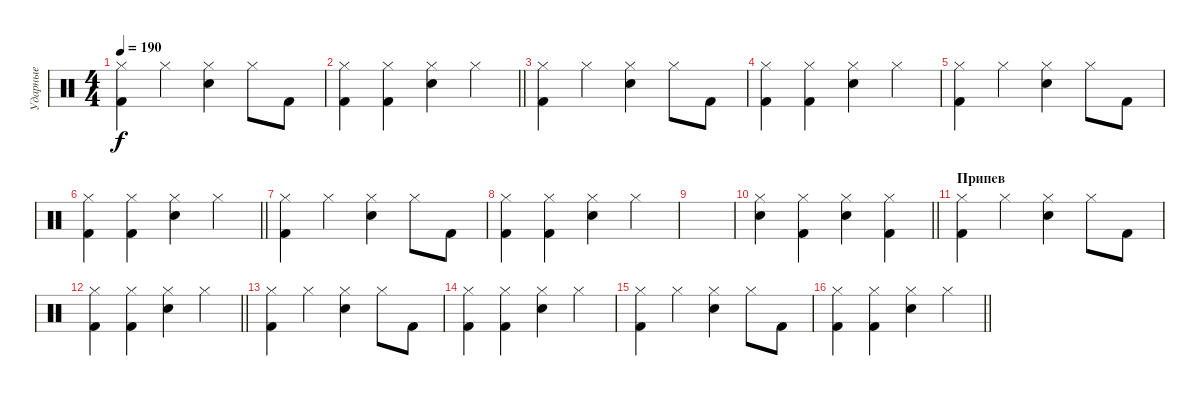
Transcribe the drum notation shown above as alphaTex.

\track ("Ударные" "Ударные") {instrument percussion}
\staff {score}
\articulation defaults
\ts (4 4)
\tempo 190
\clef neutral
\ks c
("Kick (hit) 2" "Hi-Hat (closed)").4{dy f} "Hi-Hat (closed)".4 ("Hand Clap (hit)" "Hi-Hat (closed)").4 "Hi-Hat (closed)".8 "Kick (hit) 2".8 |
\barLineRight lightlight
("Kick (hit) 2" "Hi-Hat (closed)").4 ("Kick (hit) 2" "Hi-Hat (closed)").4 ("Hand Clap (hit)" "Hi-Hat (closed)").4 "Hi-Hat (closed)".4 |
("Kick (hit) 2" "Hi-Hat (closed)").4 "Hi-Hat (closed)".4 ("Hand Clap (hit)" "Hi-Hat (closed)").4 "Hi-Hat (closed)".8 "Kick (hit) 2".8 |
("Kick (hit) 2" "Hi-Hat (closed)").4 ("Kick (hit) 2" "Hi-Hat (closed)").4 ("Hand Clap (hit)" "Hi-Hat (closed)").4 "Hi-Hat (closed)".4 |
("Kick (hit) 2" "Hi-Hat (closed)").4 "Hi-Hat (closed)".4 ("Hand Clap (hit)" "Hi-Hat (closed)").4 "Hi-Hat (closed)".8 "Kick (hit) 2".8 |
\barLineRight lightlight
("Kick (hit) 2" "Hi-Hat (closed)").4 ("Kick (hit) 2" "Hi-Hat (closed)").4 ("Hand Clap (hit)" "Hi-Hat (closed)").4 "Hi-Hat (closed)".4 |
("Kick (hit) 2" "Hi-Hat (closed)").4 "Hi-Hat (closed)".4 ("Hand Clap (hit)" "Hi-Hat (closed)").4 "Hi-Hat (closed)".8 "Kick (hit) 2".8 |
("Kick (hit) 2" "Hi-Hat (closed)").4 ("Kick (hit) 2" "Hi-Hat (closed)").4 ("Hand Clap (hit)" "Hi-Hat (closed)").4 "Hi-Hat (closed)".4 |
|
\barLineRight lightlight
("Hand Clap (hit)" "Hi-Hat (closed)").4 ("Kick (hit) 2" "Hi-Hat (closed)").4 ("Hand Clap (hit)" "Hi-Hat (closed)").4 ("Kick (hit) 2" "Hi-Hat (closed)").4 |
\section ("" "Припев")
("Kick (hit) 2" "Hi-Hat (closed)").4 "Hi-Hat (closed)".4 ("Hand Clap (hit)" "Hi-Hat (closed)").4 "Hi-Hat (closed)".8 "Kick (hit) 2".8 |
\barLineRight lightlight
("Kick (hit) 2" "Hi-Hat (closed)").4 ("Kick (hit) 2" "Hi-Hat (closed)").4 ("Hand Clap (hit)" "Hi-Hat (closed)").4 "Hi-Hat (closed)".4 |
("Kick (hit) 2" "Hi-Hat (closed)").4 "Hi-Hat (closed)".4 ("Hand Clap (hit)" "Hi-Hat (closed)").4 "Hi-Hat (closed)".8 "Kick (hit) 2".8 |
("Kick (hit) 2" "Hi-Hat (closed)").4 ("Kick (hit) 2" "Hi-Hat (closed)").4 ("Hand Clap (hit)" "Hi-Hat (closed)").4 "Hi-Hat (closed)".4 |
("Kick (hit) 2" "Hi-Hat (closed)").4 "Hi-Hat (closed)".4 ("Hand Clap (hit)" "Hi-Hat (closed)").4 "Hi-Hat (closed)".8 "Kick (hit) 2".8 |
\barLineRight lightlight
("Kick (hit) 2" "Hi-Hat (closed)").4 ("Kick (hit) 2" "Hi-Hat (closed)").4 ("Hand Clap (hit)" "Hi-Hat (closed)").4 "Hi-Hat (closed)".4
